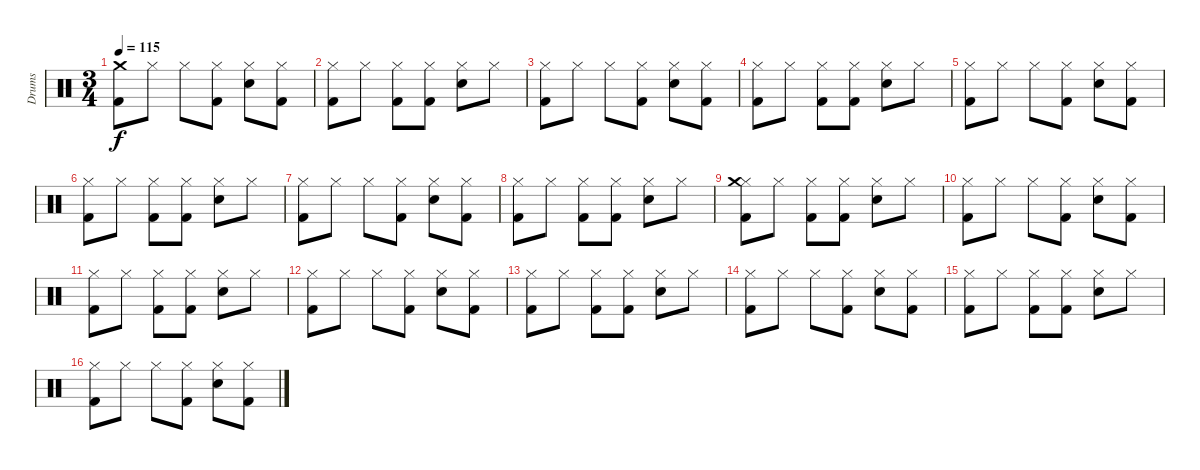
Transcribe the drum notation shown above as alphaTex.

\track ("Drums" "Drums") {instrument percussion}
\staff {score}
\articulation defaults
\ts (3 4)
\tempo 115
\clef neutral
\ks c
("Kick (hit) 2" "Crash medium (hit)").8{dy f} "Hi-Hat (closed)".8 "Hi-Hat (closed)".8 ("Kick (hit) 2" "Hi-Hat (closed)").8 ("Hi-Hat (closed)" "Snare (hit) 2").8 ("Kick (hit) 2" "Hi-Hat (closed)").8 |
("Kick (hit) 2" "Hi-Hat (closed)").8 "Hi-Hat (closed)".8 ("Kick (hit) 2" "Hi-Hat (closed)").8 ("Kick (hit) 2" "Hi-Hat (closed)").8 ("Hi-Hat (closed)" "Snare (hit) 2").8 "Hi-Hat (closed)".8 |
("Kick (hit) 2" "Hi-Hat (closed)").8 "Hi-Hat (closed)".8 "Hi-Hat (closed)".8 ("Kick (hit) 2" "Hi-Hat (closed)").8 ("Hi-Hat (closed)" "Snare (hit) 2").8 ("Kick (hit) 2" "Hi-Hat (closed)").8 |
("Kick (hit) 2" "Hi-Hat (closed)").8 "Hi-Hat (closed)".8 ("Kick (hit) 2" "Hi-Hat (closed)").8 ("Kick (hit) 2" "Hi-Hat (closed)").8 ("Hi-Hat (closed)" "Snare (hit) 2").8 "Hi-Hat (closed)".8 |
("Kick (hit) 2" "Hi-Hat (closed)").8 "Hi-Hat (closed)".8 "Hi-Hat (closed)".8 ("Kick (hit) 2" "Hi-Hat (closed)").8 ("Hi-Hat (closed)" "Snare (hit) 2").8 ("Kick (hit) 2" "Hi-Hat (closed)").8 |
("Kick (hit) 2" "Hi-Hat (closed)").8 "Hi-Hat (closed)".8 ("Kick (hit) 2" "Hi-Hat (closed)").8 ("Kick (hit) 2" "Hi-Hat (closed)").8 ("Hi-Hat (closed)" "Snare (hit) 2").8 "Hi-Hat (closed)".8 |
("Kick (hit) 2" "Hi-Hat (closed)").8 "Hi-Hat (closed)".8 "Hi-Hat (closed)".8 ("Kick (hit) 2" "Hi-Hat (closed)").8 ("Hi-Hat (closed)" "Snare (hit) 2").8 ("Kick (hit) 2" "Hi-Hat (closed)").8 |
("Kick (hit) 2" "Hi-Hat (closed)").8 "Hi-Hat (closed)".8 ("Kick (hit) 2" "Hi-Hat (closed)").8 ("Kick (hit) 2" "Hi-Hat (closed)").8 ("Hi-Hat (closed)" "Snare (hit) 2").8 "Hi-Hat (closed)".8 |
("Kick (hit) 2" "Hi-Hat (closed)" "Crash medium (hit)").8 "Hi-Hat (closed)".8 ("Kick (hit) 2" "Hi-Hat (closed)").8 ("Kick (hit) 2" "Hi-Hat (closed)").8 ("Hi-Hat (closed)" "Snare (hit) 2").8 "Hi-Hat (closed)".8 |
("Kick (hit) 2" "Hi-Hat (closed)").8 "Hi-Hat (closed)".8 "Hi-Hat (closed)".8 ("Kick (hit) 2" "Hi-Hat (closed)").8 ("Hi-Hat (closed)" "Snare (hit) 2").8 ("Kick (hit) 2" "Hi-Hat (closed)").8 |
("Kick (hit) 2" "Hi-Hat (closed)").8 "Hi-Hat (closed)".8 ("Kick (hit) 2" "Hi-Hat (closed)").8 ("Kick (hit) 2" "Hi-Hat (closed)").8 ("Hi-Hat (closed)" "Snare (hit) 2").8 "Hi-Hat (closed)".8 |
("Kick (hit) 2" "Hi-Hat (closed)").8 "Hi-Hat (closed)".8 "Hi-Hat (closed)".8 ("Kick (hit) 2" "Hi-Hat (closed)").8 ("Hi-Hat (closed)" "Snare (hit) 2").8 ("Kick (hit) 2" "Hi-Hat (closed)").8 |
("Kick (hit) 2" "Hi-Hat (closed)").8 "Hi-Hat (closed)".8 ("Kick (hit) 2" "Hi-Hat (closed)").8 ("Kick (hit) 2" "Hi-Hat (closed)").8 ("Hi-Hat (closed)" "Snare (hit) 2").8 "Hi-Hat (closed)".8 |
("Kick (hit) 2" "Hi-Hat (closed)").8 "Hi-Hat (closed)".8 "Hi-Hat (closed)".8 ("Kick (hit) 2" "Hi-Hat (closed)").8 ("Hi-Hat (closed)" "Snare (hit) 2").8 ("Kick (hit) 2" "Hi-Hat (closed)").8 |
("Kick (hit) 2" "Hi-Hat (closed)").8 "Hi-Hat (closed)".8 ("Kick (hit) 2" "Hi-Hat (closed)").8 ("Kick (hit) 2" "Hi-Hat (closed)").8 ("Hi-Hat (closed)" "Snare (hit) 2").8 "Hi-Hat (closed)".8 |
("Kick (hit) 2" "Hi-Hat (closed)").8 "Hi-Hat (closed)".8 "Hi-Hat (closed)".8 ("Kick (hit) 2" "Hi-Hat (closed)").8 ("Hi-Hat (closed)" "Snare (hit) 2").8 ("Kick (hit) 2" "Hi-Hat (closed)").8
